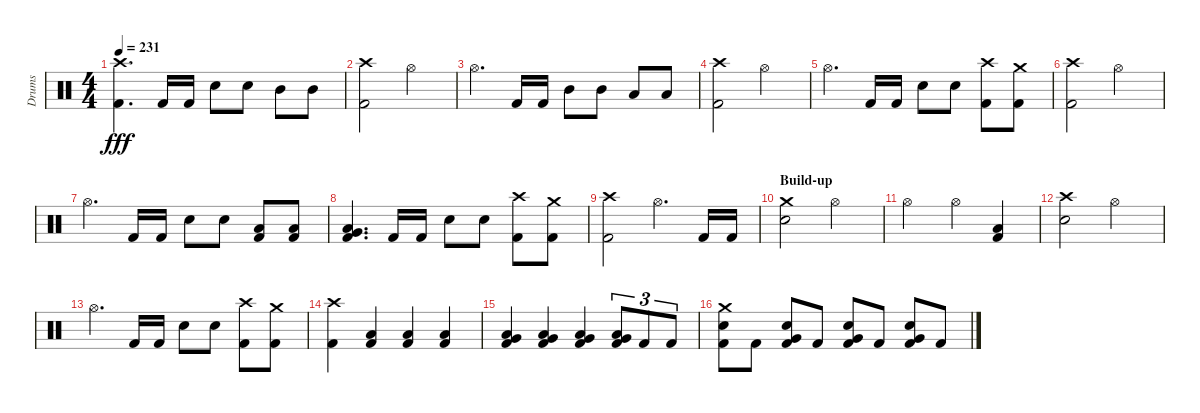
\track ("Drums" "Drums") {instrument percussion}
\staff {score}
\articulation defaults
\ts (4 4)
\tempo 231
\clef neutral
\ks aminor
("Kick (hit) 2" "Crash high (hit)").4{d dy fff} "Kick (hit) 2".16 "Kick (hit) 2".16 "Snare (hit) 2".8 "Snare (hit) 2".8 "Mid Tom (hit)".8 "Mid Tom (hit)".8 |
("Kick (hit) 2" "Crash high (hit)").2 "Hi-Hat (open)".2 |
"Hi-Hat (open)".4{d} "Kick (hit) 2".16 "Kick (hit) 2".16 "Mid Tom (hit)".8 "Mid Tom (hit)".8 "Low Tom (hit)".8 "Low Tom (hit)".8 |
("Kick (hit) 2" "Crash high (hit)").2 "Hi-Hat (open)".2 |
"Hi-Hat (open)".4{d} "Kick (hit) 2".16 "Kick (hit) 2".16 "Snare (hit) 2".8 "Snare (hit) 2".8 ("Kick (hit) 2" "Crash high (hit)").8 ("Kick (hit) 2" "Crash medium (hit)").8 |
("Kick (hit) 2" "Crash high (hit)").2 "Hi-Hat (open)".2 |
"Hi-Hat (open)".4{d} "Kick (hit) 2".16 "Kick (hit) 2".16 "Snare (hit) 2".8 "Snare (hit) 2".8 ("Kick (hit) 2" "Low Floor Tom (hit)").8 ("Kick (hit) 2" "Low Floor Tom (hit)").8 |
("Low Floor Tom (hit)" "Kick (hit) 2" "Very Low Tom (hit)").4{d} "Kick (hit) 2".16 "Kick (hit) 2".16 "Snare (hit) 2".8 "Snare (hit) 2".8 ("Kick (hit) 2" "Crash high (hit)").8 ("Kick (hit) 2" "Crash medium (hit)").8 |
("Kick (hit) 2" "Crash high (hit)").2 "Hi-Hat (open)".4{d} "Kick (hit) 2".16 "Kick (hit) 2".16 |
\section ("" "Build-up")
("Snare (hit) 2" "Crash medium (hit)").2 "Hi-Hat (open)".2 |
"Hi-Hat (open)".2 "Hi-Hat (open)".4 ("Low Floor Tom (hit)" "Kick (hit) 2").4 |
("Snare (hit) 2" "Crash high (hit)").2 "Hi-Hat (open)".2 |
"Hi-Hat (open)".4{d} "Kick (hit) 2".16 "Kick (hit) 2".16 "Snare (hit) 2".8 "Snare (hit) 2".8 ("Kick (hit) 2" "Crash high (hit)").8 ("Kick (hit) 2" "Crash medium (hit)").8 |
("Kick (hit) 2" "Crash high (hit)").4 ("Kick (hit) 2" "Low Floor Tom (hit)").4 ("Kick (hit) 2" "Low Floor Tom (hit)").4 ("Kick (hit) 2" "Low Floor Tom (hit)").4 |
("Kick (hit) 2" "Low Floor Tom (hit)" "Very Low Tom (hit)").4 ("Kick (hit) 2" "Low Floor Tom (hit)" "Very Low Tom (hit)").4 ("Low Floor Tom (hit)" "Kick (hit) 2" "Very Low Tom (hit)").4 ("Kick (hit) 2" "Low Floor Tom (hit)" "Very Low Tom (hit)").8{tu (3 2)} "Kick (hit) 2".8{tu (3 2)} "Kick (hit) 2".8{tu (3 2)} |
("Crash medium (hit)" "Kick (hit) 2" "Snare (hit) 2").8 "Kick (hit) 2".8 ("Kick (hit) 2" "Snare (hit) 2" "Very Low Tom (hit)").8 "Kick (hit) 2".8 ("Kick (hit) 2" "Snare (hit) 2" "Very Low Tom (hit)").8 "Kick (hit) 2".8 ("Kick (hit) 2" "Snare (hit) 2" "Very Low Tom (hit)").8 "Kick (hit) 2".8
